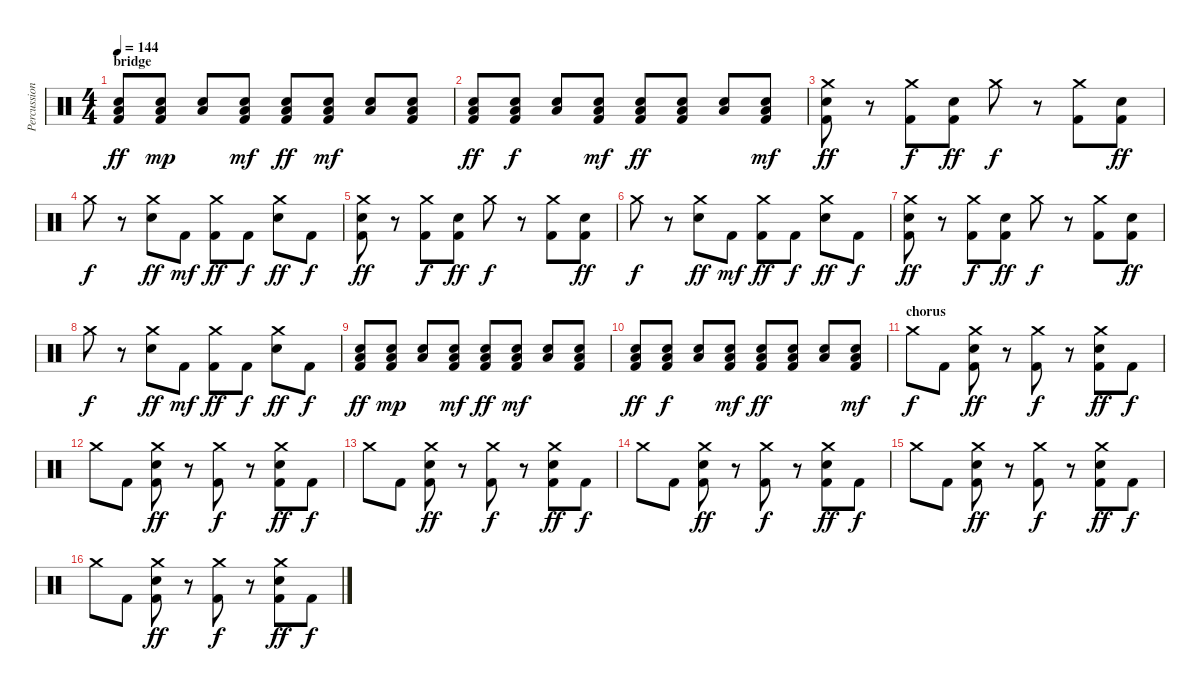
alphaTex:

\track ("Percussion" "Percussion") {instrument percussion}
\staff {score}
\articulation defaults
\ts (4 4)
\section ("" "bridge")
\tempo 144
\clef neutral
\ks c
("Low Tom (hit)" "Snare (hit) 2" "Kick (hit) 2").8{dy ff} ("Low Tom (hit)" "Snare (hit) 2" "Kick (hit) 2").8{dy mp} ("Low Tom (hit)" "Snare (hit) 2").8 ("Low Tom (hit)" "Snare (hit) 2" "Kick (hit) 2").8{dy mf} ("Low Tom (hit)" "Snare (hit) 2" "Kick (hit) 2").8{dy ff} ("Low Tom (hit)" "Snare (hit) 2" "Kick (hit) 2").8{dy mf} ("Low Tom (hit)" "Snare (hit) 2").8 ("Low Tom (hit)" "Snare (hit) 2" "Kick (hit) 2").8 |
("Low Tom (hit)" "Snare (hit) 2" "Kick (hit) 2").8{dy ff} ("Low Tom (hit)" "Snare (hit) 2" "Kick (hit) 2").8{dy f} ("Low Tom (hit)" "Snare (hit) 2").8 ("Low Tom (hit)" "Snare (hit) 2" "Kick (hit) 2").8{dy mf} ("Low Tom (hit)" "Snare (hit) 2" "Kick (hit) 2").8{dy ff} ("Low Tom (hit)" "Snare (hit) 2" "Kick (hit) 2").8 ("Low Tom (hit)" "Snare (hit) 2").8 ("Low Tom (hit)" "Snare (hit) 2" "Kick (hit) 2").8{dy mf} |
("Crash medium (hit)" "Snare (hit) 2" "Kick (hit) 2").8{dy ff} r.8 ("Crash medium (hit)" "Kick (hit) 2").8{dy f} ("Snare (hit) 2" "Kick (hit) 2").8{dy ff} "Crash medium (hit)".8{dy f} r.8 ("Crash medium (hit)" "Kick (hit) 2").8 ("Snare (hit) 2" "Kick (hit) 2").8{dy ff} |
"Crash medium (hit)".8{dy f} r.8 ("Crash medium (hit)" "Snare (hit) 2").8{dy ff} "Kick (hit) 2".8{dy mf} ("Crash medium (hit)" "Kick (hit) 2").8{dy ff} "Kick (hit) 2".8{dy f} ("Crash medium (hit)" "Snare (hit) 2").8{dy ff} "Kick (hit) 2".8{dy f} |
("Crash medium (hit)" "Snare (hit) 2" "Kick (hit) 2").8{dy ff} r.8 ("Crash medium (hit)" "Kick (hit) 2").8{dy f} ("Snare (hit) 2" "Kick (hit) 2").8{dy ff} "Crash medium (hit)".8{dy f} r.8 ("Crash medium (hit)" "Kick (hit) 2").8 ("Snare (hit) 2" "Kick (hit) 2").8{dy ff} |
"Crash medium (hit)".8{dy f} r.8 ("Crash medium (hit)" "Snare (hit) 2").8{dy ff} "Kick (hit) 2".8{dy mf} ("Crash medium (hit)" "Kick (hit) 2").8{dy ff} "Kick (hit) 2".8{dy f} ("Crash medium (hit)" "Snare (hit) 2").8{dy ff} "Kick (hit) 2".8{dy f} |
("Crash medium (hit)" "Snare (hit) 2" "Kick (hit) 2").8{dy ff} r.8 ("Crash medium (hit)" "Kick (hit) 2").8{dy f} ("Snare (hit) 2" "Kick (hit) 2").8{dy ff} "Crash medium (hit)".8{dy f} r.8 ("Crash medium (hit)" "Kick (hit) 2").8 ("Snare (hit) 2" "Kick (hit) 2").8{dy ff} |
"Crash medium (hit)".8{dy f} r.8 ("Crash medium (hit)" "Snare (hit) 2").8{dy ff} "Kick (hit) 2".8{dy mf} ("Crash medium (hit)" "Kick (hit) 2").8{dy ff} "Kick (hit) 2".8{dy f} ("Crash medium (hit)" "Snare (hit) 2").8{dy ff} "Kick (hit) 2".8{dy f} |
("Low Tom (hit)" "Snare (hit) 2" "Kick (hit) 2").8{dy ff} ("Low Tom (hit)" "Snare (hit) 2" "Kick (hit) 2").8{dy mp} ("Low Tom (hit)" "Snare (hit) 2").8 ("Low Tom (hit)" "Snare (hit) 2" "Kick (hit) 2").8{dy mf} ("Low Tom (hit)" "Snare (hit) 2" "Kick (hit) 2").8{dy ff} ("Low Tom (hit)" "Snare (hit) 2" "Kick (hit) 2").8{dy mf} ("Low Tom (hit)" "Snare (hit) 2").8 ("Low Tom (hit)" "Snare (hit) 2" "Kick (hit) 2").8 |
("Low Tom (hit)" "Snare (hit) 2" "Kick (hit) 2").8{dy ff} ("Low Tom (hit)" "Snare (hit) 2" "Kick (hit) 2").8{dy f} ("Low Tom (hit)" "Snare (hit) 2").8 ("Low Tom (hit)" "Snare (hit) 2" "Kick (hit) 2").8{dy mf} ("Low Tom (hit)" "Snare (hit) 2" "Kick (hit) 2").8{dy ff} ("Low Tom (hit)" "Snare (hit) 2" "Kick (hit) 2").8 ("Low Tom (hit)" "Snare (hit) 2").8 ("Low Tom (hit)" "Snare (hit) 2" "Kick (hit) 2").8{dy mf} |
\section ("" "chorus")
"Crash medium (hit)".8{dy f} "Kick (hit) 2".8 ("Crash medium (hit)" "Snare (hit) 2" "Kick (hit) 2").8{dy ff} r.8 ("Crash medium (hit)" "Kick (hit) 2").8{dy f} r.8 ("Crash medium (hit)" "Snare (hit) 2" "Kick (hit) 2").8{dy ff} "Kick (hit) 2".8{dy f} |
"Crash medium (hit)".8 "Kick (hit) 2".8 ("Crash medium (hit)" "Snare (hit) 2" "Kick (hit) 2").8{dy ff} r.8 ("Crash medium (hit)" "Kick (hit) 2").8{dy f} r.8 ("Crash medium (hit)" "Snare (hit) 2" "Kick (hit) 2").8{dy ff} "Kick (hit) 2".8{dy f} |
"Crash medium (hit)".8 "Kick (hit) 2".8 ("Crash medium (hit)" "Snare (hit) 2" "Kick (hit) 2").8{dy ff} r.8 ("Crash medium (hit)" "Kick (hit) 2").8{dy f} r.8 ("Crash medium (hit)" "Snare (hit) 2" "Kick (hit) 2").8{dy ff} "Kick (hit) 2".8{dy f} |
"Crash medium (hit)".8 "Kick (hit) 2".8 ("Crash medium (hit)" "Snare (hit) 2" "Kick (hit) 2").8{dy ff} r.8 ("Crash medium (hit)" "Kick (hit) 2").8{dy f} r.8 ("Crash medium (hit)" "Snare (hit) 2" "Kick (hit) 2").8{dy ff} "Kick (hit) 2".8{dy f} |
"Crash medium (hit)".8 "Kick (hit) 2".8 ("Crash medium (hit)" "Snare (hit) 2" "Kick (hit) 2").8{dy ff} r.8 ("Crash medium (hit)" "Kick (hit) 2").8{dy f} r.8 ("Crash medium (hit)" "Snare (hit) 2" "Kick (hit) 2").8{dy ff} "Kick (hit) 2".8{dy f} |
"Crash medium (hit)".8 "Kick (hit) 2".8 ("Crash medium (hit)" "Snare (hit) 2" "Kick (hit) 2").8{dy ff} r.8 ("Crash medium (hit)" "Kick (hit) 2").8{dy f} r.8 ("Crash medium (hit)" "Snare (hit) 2" "Kick (hit) 2").8{dy ff} "Kick (hit) 2".8{dy f}
